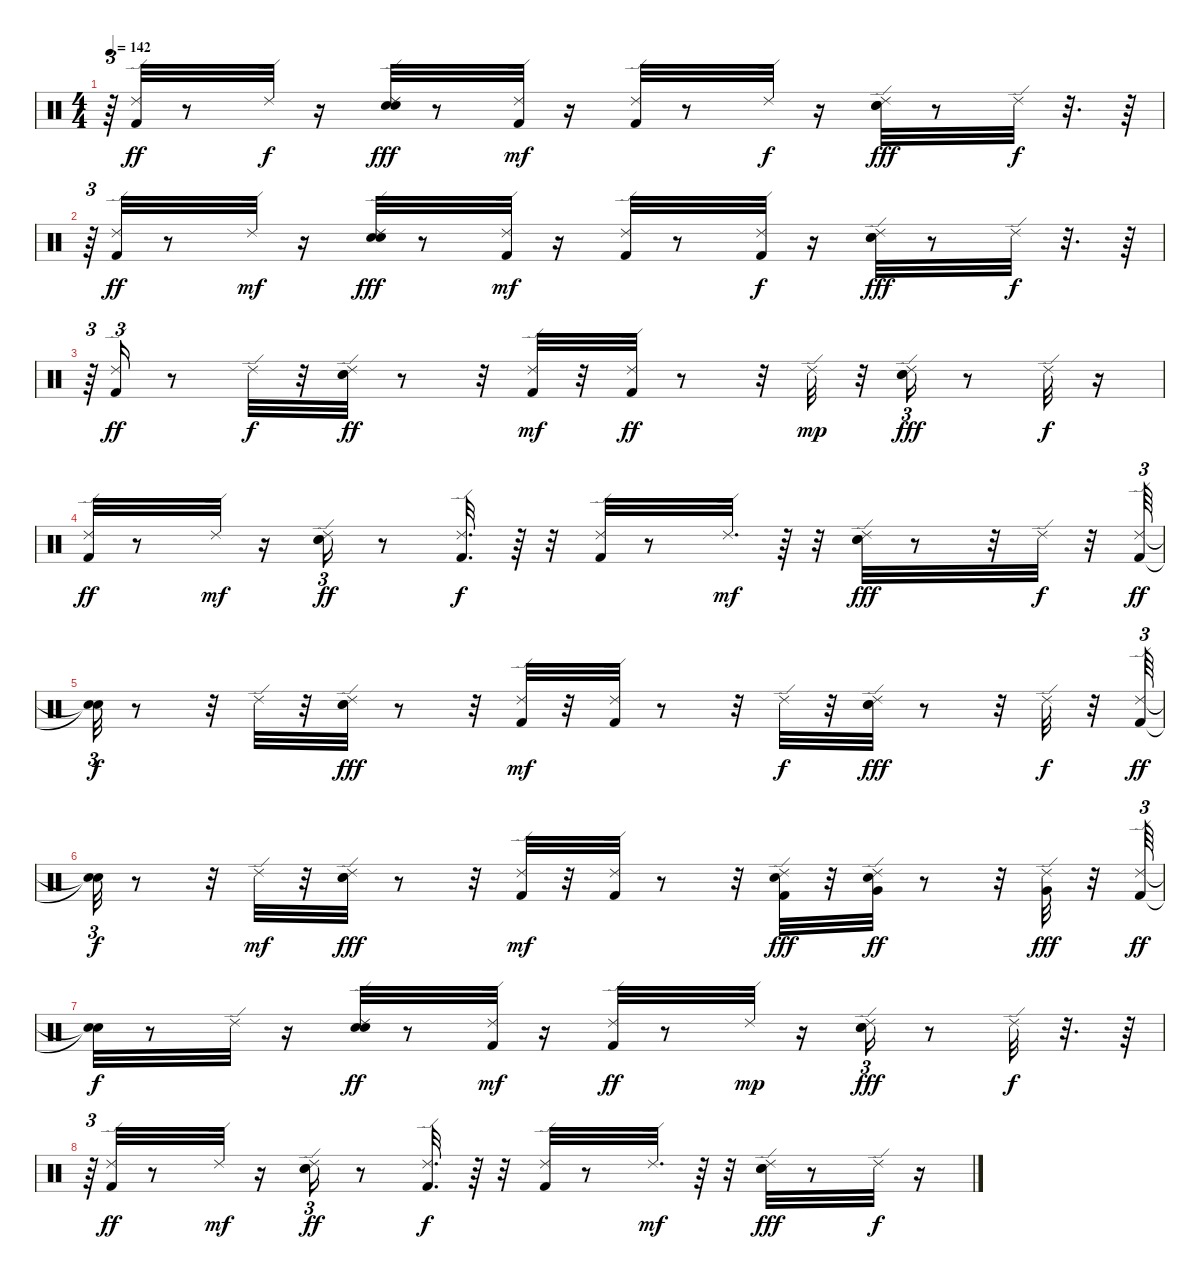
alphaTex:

\track "" {instrument percussion}
\staff {score}
\articulation defaults
\ts (4 4)
\tempo 142
\clef neutral
\ks c
r.64{tu (3 2) dy f} ("Ride (edge) 2" "Kick (hit) 2").32{dy ff} r.8 "Ride (edge) 2".32{dy f} r.16 ("Electric Snare (hit)" "Hand Clap (hit)" "Ride (edge) 2").32{dy fff} r.8 ("Kick (hit) 2" "Ride (edge) 2").32{dy mf} r.16 ("Kick (hit) 2" "Ride (edge) 2").32 r.8 "Ride (edge) 2".32{dy f} r.16 ("Electric Snare (hit)" "Hand Clap (hit)" "Ride (edge) 2").32{dy fff} r.8 "Ride (edge) 2".32{dy f} r.32{d} r.64 |
r.64{tu (3 2)} ("Kick (hit) 2" "Ride (edge) 2").32{dy ff} r.8 "Ride (edge) 2".32{dy mf} r.16 ("Hand Clap (hit)" "Electric Snare (hit)" "Ride (edge) 2").32{dy fff} r.8 ("Kick (hit) 2" "Ride (edge) 2").32{dy mf} r.16 ("Kick (hit) 2" "Ride (edge) 2").32 r.8 ("Ride (edge) 2" "Kick (hit) 2").32{dy f} r.16 ("Electric Snare (hit)" "Hand Clap (hit)" "Ride (edge) 2").32{dy fff} r.8 "Ride (edge) 2".32{dy f} r.32{d} r.64 |
r.64{tu (3 2)} ("Ride (edge) 2" "Kick (hit) 2").16{tu (3 2) dy ff} r.8 "Ride (edge) 2".32{dy f} r.32 ("Hand Clap (hit)" "Electric Snare (hit)" "Ride (edge) 2").32{dy ff} r.8 r.32 ("Kick (hit) 2" "Ride (edge) 2").32{dy mf} r.32 ("Kick (hit) 2" "Ride (edge) 2").32{dy ff} r.8 r.32 "Ride (edge) 2".32{dy mp} r.32 ("Hand Clap (hit)" "Electric Snare (hit)" "Ride (edge) 2").16{tu (3 2) dy fff} r.8 "Ride (edge) 2".32{dy f} r.16 |
("Kick (hit) 2" "Ride (edge) 2").32{dy ff} r.8 "Ride (edge) 2".32{dy mf} r.16 ("Hand Clap (hit)" "Electric Snare (hit)" "Ride (edge) 2").16{tu (3 2) dy ff} r.8 ("Kick (hit) 2" "Ride (edge) 2").32{d dy f} r.64 r.32 ("Kick (hit) 2" "Ride (edge) 2").32 r.8 "Ride (edge) 2".32{d dy mf} r.64 r.32 ("Hand Clap (hit)" "Electric Snare (hit)" "Ride (edge) 2").32{dy fff} r.8 r.32 "Ride (edge) 2".32{dy f} r.32 ("Ride (edge) 2" "Kick (hit) 2").64{tu (3 2) dy ff} |
("Snare (hit)"{t} "Snare (hit)"{t}).32{tu (3 2) dy f} r.8 r.32 "Ride (edge) 2".32 r.32 ("Electric Snare (hit)" "Hand Clap (hit)" "Ride (edge) 2").32{dy fff} r.8 r.32 ("Kick (hit) 2" "Ride (edge) 2").32{dy mf} r.32 ("Kick (hit) 2" "Ride (edge) 2").32 r.8 r.32 "Ride (edge) 2".32{dy f} r.32 ("Electric Snare (hit)" "Hand Clap (hit)" "Ride (edge) 2").32{dy fff} r.8 r.32 "Ride (edge) 2".32{dy f} r.32 ("Kick (hit) 2" "Ride (edge) 2").64{tu (3 2) dy ff} |
("Snare (hit)"{t} "Snare (hit)"{t}).32{tu (3 2) dy f} r.8 r.32 "Ride (edge) 2".32{dy mf} r.32 ("Hand Clap (hit)" "Electric Snare (hit)" "Ride (edge) 2").32{dy fff} r.8 r.32 ("Kick (hit) 2" "Ride (edge) 2").32{dy mf} r.32 ("Kick (hit) 2" "Ride (edge) 2").32 r.8 r.32 ("Electric Snare (hit)" "Ride (edge) 2" "Kick (hit) 2").32{dy fff} r.32 ("Very Low Tom (hit)" "Hand Clap (hit)" "Ride (edge) 2").32{dy ff} r.8 r.32 ("Very Low Tom (hit)" "Ride (edge) 2").32{dy fff} r.32 ("Ride (edge) 2" "Kick (hit) 2").64{tu (3 2) dy ff} |
("Snare (hit)"{t} "Snare (hit)"{t}).32{dy f} r.8 "Ride (edge) 2".32 r.16 ("Hand Clap (hit)" "Electric Snare (hit)" "Ride (edge) 2").32{dy ff} r.8 ("Kick (hit) 2" "Ride (edge) 2").32{dy mf} r.16 ("Kick (hit) 2" "Ride (edge) 2").32{dy ff} r.8 "Ride (edge) 2".32{dy mp} r.16 ("Hand Clap (hit)" "Electric Snare (hit)" "Ride (edge) 2").16{tu (3 2) dy fff} r.8 "Ride (edge) 2".32{dy f} r.32{d} r.64 |
r.64{tu (3 2)} ("Kick (hit) 2" "Ride (edge) 2").32{dy ff} r.8 "Ride (edge) 2".32{dy mf} r.16 ("Hand Clap (hit)" "Electric Snare (hit)" "Ride (edge) 2").16{tu (3 2) dy ff} r.8 ("Kick (hit) 2" "Ride (edge) 2").32{d dy f} r.64 r.32 ("Kick (hit) 2" "Ride (edge) 2").32 r.8 "Ride (edge) 2".32{d dy mf} r.64 r.32 ("Hand Clap (hit)" "Electric Snare (hit)" "Ride (edge) 2").32{dy fff} r.8 "Ride (edge) 2".32{dy f} r.16
